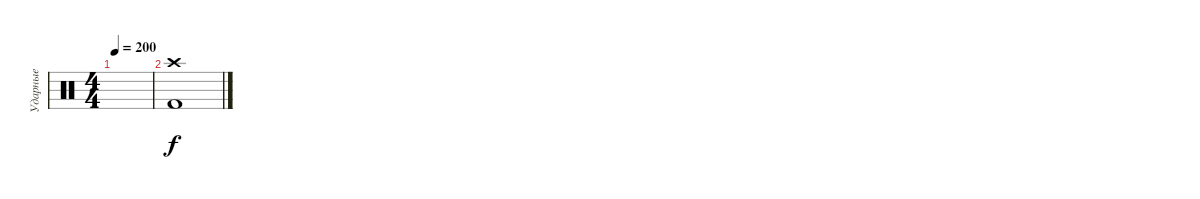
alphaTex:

\track ("Ударные" "Ударные") {instrument percussion}
\staff {score}
\articulation defaults
\ts (4 4)
\tempo 200
\clef neutral
\ks c
|
("Kick (hit) 2" "Crash high (hit)").1
